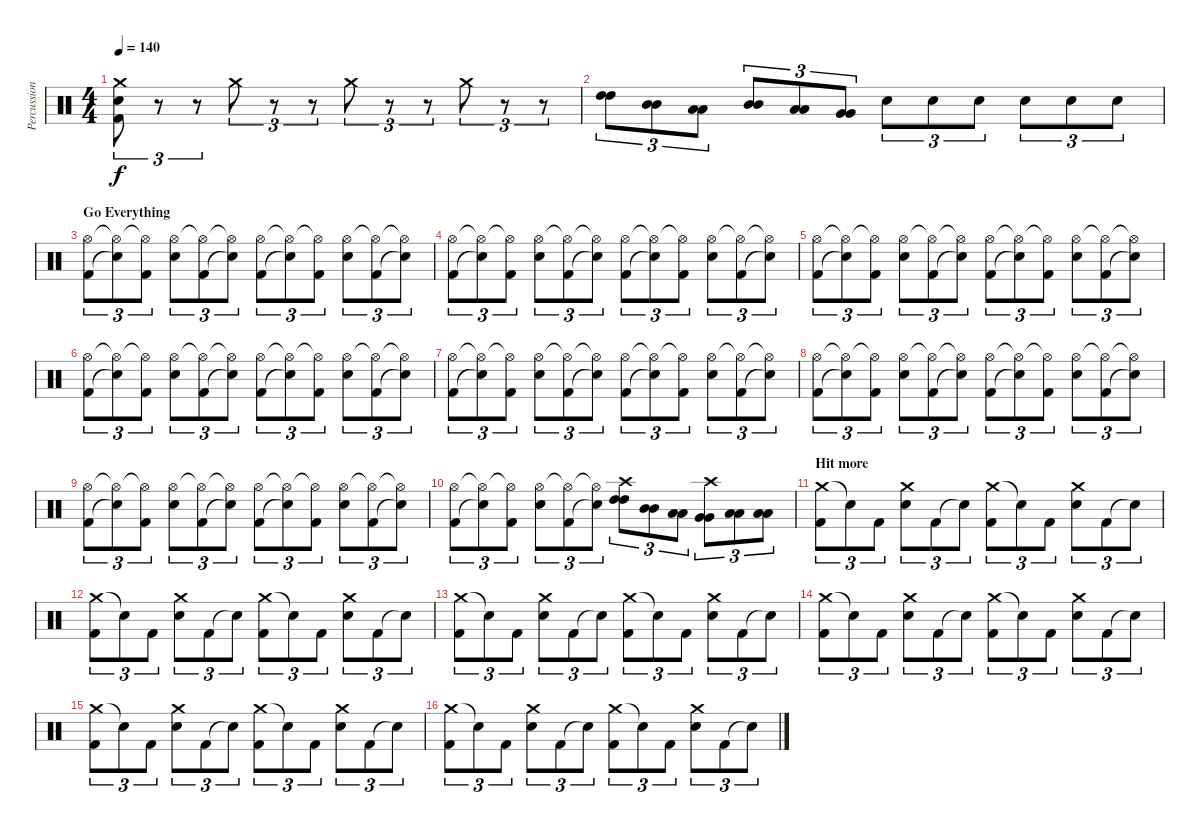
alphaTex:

\track ("Percussion" "Percussion") {instrument percussion}
\staff {score}
\articulation defaults
\ts (4 4)
\tempo 140
\clef neutral
\ks c
("Crash medium (hit)" "Electric Snare (hit)" "Kick (hit) 2").8{tu (3 2) dy f} r.8{tu (3 2)} r.8{tu (3 2)} "Crash medium (hit)".8{tu (3 2)} r.8{tu (3 2)} r.8{tu (3 2)} "Crash medium (hit)".8{tu (3 2)} r.8{tu (3 2)} r.8{tu (3 2)} "Crash medium (hit)".8{tu (3 2)} r.8{tu (3 2)} r.8{tu (3 2)} |
("High Tom (hit)" "High Tom (hit)").8{tu (3 2)} ("Mid Tom (hit)" "Mid Tom (hit)").8{tu (3 2)} ("Low Tom (hit)" "Low Tom (hit)").8{tu (3 2)} ("Mid Tom (hit)" "Mid Tom (hit)").8{tu (3 2)} ("Low Tom (hit)" "Low Tom (hit)").8{tu (3 2)} ("Very Low Tom (hit)" "Very Low Tom (hit)").8{tu (3 2)} "Electric Snare (hit)".8{tu (3 2)} "Electric Snare (hit)".8{tu (3 2)} "Electric Snare (hit)".8{tu (3 2)} "Electric Snare (hit)".8{tu (3 2)} "Electric Snare (hit)".8{tu (3 2)} "Electric Snare (hit)".8{tu (3 2)} |
\section ("" "Go Everything")
("Hi-Hat (open)" "Kick (hit) 2").8{tu (3 2)} ("Hi-Hat (open)"{t} "Snare (hit)"{t}).8{tu (3 2)} ("Hi-Hat (open)"{t} "Kick (hit) 2").8{tu (3 2)} ("Hi-Hat (open)" "Electric Snare (hit)").8{tu (3 2)} ("Hi-Hat (open)"{t} "Kick (hit) 2").8{tu (3 2)} ("Hi-Hat (open)"{t} "Snare (hit)"{t}).8{tu (3 2)} ("Hi-Hat (open)" "Kick (hit) 2").8{tu (3 2)} ("Hi-Hat (open)"{t} "Snare (hit)"{t}).8{tu (3 2)} ("Hi-Hat (open)"{t} "Kick (hit) 2").8{tu (3 2)} ("Hi-Hat (open)" "Electric Snare (hit)").8{tu (3 2)} ("Hi-Hat (open)"{t} "Kick (hit) 2").8{tu (3 2)} ("Hi-Hat (open)"{t} "Snare (hit)"{t}).8{tu (3 2)} |
("Hi-Hat (open)" "Kick (hit) 2").8{tu (3 2)} ("Hi-Hat (open)"{t} "Snare (hit)"{t}).8{tu (3 2)} ("Hi-Hat (open)"{t} "Kick (hit) 2").8{tu (3 2)} ("Hi-Hat (open)" "Electric Snare (hit)").8{tu (3 2)} ("Hi-Hat (open)"{t} "Kick (hit) 2").8{tu (3 2)} ("Hi-Hat (open)"{t} "Snare (hit)"{t}).8{tu (3 2)} ("Hi-Hat (open)" "Kick (hit) 2").8{tu (3 2)} ("Hi-Hat (open)"{t} "Snare (hit)"{t}).8{tu (3 2)} ("Hi-Hat (open)"{t} "Kick (hit) 2").8{tu (3 2)} ("Hi-Hat (open)" "Electric Snare (hit)").8{tu (3 2)} ("Hi-Hat (open)"{t} "Kick (hit) 2").8{tu (3 2)} ("Hi-Hat (open)"{t} "Snare (hit)"{t}).8{tu (3 2)} |
("Hi-Hat (open)" "Kick (hit) 2").8{tu (3 2)} ("Hi-Hat (open)"{t} "Snare (hit)"{t}).8{tu (3 2)} ("Hi-Hat (open)"{t} "Kick (hit) 2").8{tu (3 2)} ("Hi-Hat (open)" "Electric Snare (hit)").8{tu (3 2)} ("Hi-Hat (open)"{t} "Kick (hit) 2").8{tu (3 2)} ("Hi-Hat (open)"{t} "Snare (hit)"{t}).8{tu (3 2)} ("Hi-Hat (open)" "Kick (hit) 2").8{tu (3 2)} ("Hi-Hat (open)"{t} "Snare (hit)"{t}).8{tu (3 2)} ("Hi-Hat (open)"{t} "Kick (hit) 2").8{tu (3 2)} ("Hi-Hat (open)" "Electric Snare (hit)").8{tu (3 2)} ("Hi-Hat (open)"{t} "Kick (hit) 2").8{tu (3 2)} ("Hi-Hat (open)"{t} "Snare (hit)"{t}).8{tu (3 2)} |
("Hi-Hat (open)" "Kick (hit) 2").8{tu (3 2)} ("Hi-Hat (open)"{t} "Snare (hit)"{t}).8{tu (3 2)} ("Hi-Hat (open)"{t} "Kick (hit) 2").8{tu (3 2)} ("Hi-Hat (open)" "Electric Snare (hit)").8{tu (3 2)} ("Hi-Hat (open)"{t} "Kick (hit) 2").8{tu (3 2)} ("Hi-Hat (open)"{t} "Snare (hit)"{t}).8{tu (3 2)} ("Hi-Hat (open)" "Kick (hit) 2").8{tu (3 2)} ("Hi-Hat (open)"{t} "Snare (hit)"{t}).8{tu (3 2)} ("Hi-Hat (open)"{t} "Kick (hit) 2").8{tu (3 2)} ("Hi-Hat (open)" "Electric Snare (hit)").8{tu (3 2)} ("Hi-Hat (open)"{t} "Kick (hit) 2").8{tu (3 2)} ("Hi-Hat (open)"{t} "Snare (hit)"{t}).8{tu (3 2)} |
("Hi-Hat (open)" "Kick (hit) 2").8{tu (3 2)} ("Hi-Hat (open)"{t} "Snare (hit)"{t}).8{tu (3 2)} ("Hi-Hat (open)"{t} "Kick (hit) 2").8{tu (3 2)} ("Hi-Hat (open)" "Electric Snare (hit)").8{tu (3 2)} ("Hi-Hat (open)"{t} "Kick (hit) 2").8{tu (3 2)} ("Hi-Hat (open)"{t} "Snare (hit)"{t}).8{tu (3 2)} ("Hi-Hat (open)" "Kick (hit) 2").8{tu (3 2)} ("Hi-Hat (open)"{t} "Snare (hit)"{t}).8{tu (3 2)} ("Hi-Hat (open)"{t} "Kick (hit) 2").8{tu (3 2)} ("Hi-Hat (open)" "Electric Snare (hit)").8{tu (3 2)} ("Hi-Hat (open)"{t} "Kick (hit) 2").8{tu (3 2)} ("Hi-Hat (open)"{t} "Snare (hit)"{t}).8{tu (3 2)} |
("Hi-Hat (open)" "Kick (hit) 2").8{tu (3 2)} ("Hi-Hat (open)"{t} "Snare (hit)"{t}).8{tu (3 2)} ("Hi-Hat (open)"{t} "Kick (hit) 2").8{tu (3 2)} ("Hi-Hat (open)" "Electric Snare (hit)").8{tu (3 2)} ("Hi-Hat (open)"{t} "Kick (hit) 2").8{tu (3 2)} ("Hi-Hat (open)"{t} "Snare (hit)"{t}).8{tu (3 2)} ("Hi-Hat (open)" "Kick (hit) 2").8{tu (3 2)} ("Hi-Hat (open)"{t} "Snare (hit)"{t}).8{tu (3 2)} ("Hi-Hat (open)"{t} "Kick (hit) 2").8{tu (3 2)} ("Hi-Hat (open)" "Electric Snare (hit)").8{tu (3 2)} ("Hi-Hat (open)"{t} "Kick (hit) 2").8{tu (3 2)} ("Hi-Hat (open)"{t} "Snare (hit)"{t}).8{tu (3 2)} |
("Hi-Hat (open)" "Kick (hit) 2").8{tu (3 2)} ("Hi-Hat (open)"{t} "Snare (hit)"{t}).8{tu (3 2)} ("Hi-Hat (open)"{t} "Kick (hit) 2").8{tu (3 2)} ("Hi-Hat (open)" "Electric Snare (hit)").8{tu (3 2)} ("Hi-Hat (open)"{t} "Kick (hit) 2").8{tu (3 2)} ("Hi-Hat (open)"{t} "Snare (hit)"{t}).8{tu (3 2)} ("Hi-Hat (open)" "Kick (hit) 2").8{tu (3 2)} ("Hi-Hat (open)"{t} "Snare (hit)"{t}).8{tu (3 2)} ("Hi-Hat (open)"{t} "Kick (hit) 2").8{tu (3 2)} ("Hi-Hat (open)" "Electric Snare (hit)").8{tu (3 2)} ("Hi-Hat (open)"{t} "Kick (hit) 2").8{tu (3 2)} ("Hi-Hat (open)"{t} "Snare (hit)"{t}).8{tu (3 2)} |
("Hi-Hat (open)" "Kick (hit) 2").8{tu (3 2)} ("Hi-Hat (open)"{t} "Snare (hit)"{t}).8{tu (3 2)} ("Hi-Hat (open)"{t} "Kick (hit) 2").8{tu (3 2)} ("Hi-Hat (open)" "Electric Snare (hit)").8{tu (3 2)} ("Hi-Hat (open)"{t} "Kick (hit) 2").8{tu (3 2)} ("Hi-Hat (open)"{t} "Snare (hit)"{t}).8{tu (3 2)} ("Crash high (hit)" "High Tom (hit)" "High Tom (hit)").8{tu (3 2)} ("Mid Tom (hit)" "Mid Tom (hit)").8{tu (3 2)} ("Low Tom (hit)" "Low Tom (hit)").8{tu (3 2)} ("Crash high (hit)" "Very Low Tom (hit)" "Very Low Tom (hit)").8{tu (3 2)} ("Low Floor Tom (hit)" "Low Floor Tom (hit)").8{tu (3 2)} ("Low Floor Tom (hit)" "Low Floor Tom (hit)").8{tu (3 2)} |
\section ("" "Hit more")
("Crash medium (hit)" "Kick (hit) 2").8{tu (3 2)} "Snare (hit)"{t}.8{tu (3 2)} "Kick (hit) 2".8{tu (3 2)} ("Crash medium (hit)" "Electric Snare (hit)").8{tu (3 2)} "Kick (hit) 2".8{tu (3 2)} "Snare (hit)"{t}.8{tu (3 2)} ("Crash medium (hit)" "Kick (hit) 2").8{tu (3 2)} "Snare (hit)"{t}.8{tu (3 2)} "Kick (hit) 2".8{tu (3 2)} ("Crash medium (hit)" "Electric Snare (hit)").8{tu (3 2)} "Kick (hit) 2".8{tu (3 2)} "Snare (hit)"{t}.8{tu (3 2)} |
("Crash medium (hit)" "Kick (hit) 2").8{tu (3 2)} "Snare (hit)"{t}.8{tu (3 2)} "Kick (hit) 2".8{tu (3 2)} ("Crash medium (hit)" "Electric Snare (hit)").8{tu (3 2)} "Kick (hit) 2".8{tu (3 2)} "Snare (hit)"{t}.8{tu (3 2)} ("Crash medium (hit)" "Kick (hit) 2").8{tu (3 2)} "Snare (hit)"{t}.8{tu (3 2)} "Kick (hit) 2".8{tu (3 2)} ("Crash medium (hit)" "Electric Snare (hit)").8{tu (3 2)} "Kick (hit) 2".8{tu (3 2)} "Snare (hit)"{t}.8{tu (3 2)} |
("Crash medium (hit)" "Kick (hit) 2").8{tu (3 2)} "Snare (hit)"{t}.8{tu (3 2)} "Kick (hit) 2".8{tu (3 2)} ("Crash medium (hit)" "Electric Snare (hit)").8{tu (3 2)} "Kick (hit) 2".8{tu (3 2)} "Snare (hit)"{t}.8{tu (3 2)} ("Crash medium (hit)" "Kick (hit) 2").8{tu (3 2)} "Snare (hit)"{t}.8{tu (3 2)} "Kick (hit) 2".8{tu (3 2)} ("Crash medium (hit)" "Electric Snare (hit)").8{tu (3 2)} "Kick (hit) 2".8{tu (3 2)} "Snare (hit)"{t}.8{tu (3 2)} |
("Crash medium (hit)" "Kick (hit) 2").8{tu (3 2)} "Snare (hit)"{t}.8{tu (3 2)} "Kick (hit) 2".8{tu (3 2)} ("Crash medium (hit)" "Electric Snare (hit)").8{tu (3 2)} "Kick (hit) 2".8{tu (3 2)} "Snare (hit)"{t}.8{tu (3 2)} ("Crash medium (hit)" "Kick (hit) 2").8{tu (3 2)} "Snare (hit)"{t}.8{tu (3 2)} "Kick (hit) 2".8{tu (3 2)} ("Crash medium (hit)" "Electric Snare (hit)").8{tu (3 2)} "Kick (hit) 2".8{tu (3 2)} "Snare (hit)"{t}.8{tu (3 2)} |
("Crash medium (hit)" "Kick (hit) 2").8{tu (3 2)} "Snare (hit)"{t}.8{tu (3 2)} "Kick (hit) 2".8{tu (3 2)} ("Crash medium (hit)" "Electric Snare (hit)").8{tu (3 2)} "Kick (hit) 2".8{tu (3 2)} "Snare (hit)"{t}.8{tu (3 2)} ("Crash medium (hit)" "Kick (hit) 2").8{tu (3 2)} "Snare (hit)"{t}.8{tu (3 2)} "Kick (hit) 2".8{tu (3 2)} ("Crash medium (hit)" "Electric Snare (hit)").8{tu (3 2)} "Kick (hit) 2".8{tu (3 2)} "Snare (hit)"{t}.8{tu (3 2)} |
("Crash medium (hit)" "Kick (hit) 2").8{tu (3 2)} "Snare (hit)"{t}.8{tu (3 2)} "Kick (hit) 2".8{tu (3 2)} ("Crash medium (hit)" "Electric Snare (hit)").8{tu (3 2)} "Kick (hit) 2".8{tu (3 2)} "Snare (hit)"{t}.8{tu (3 2)} ("Crash medium (hit)" "Kick (hit) 2").8{tu (3 2)} "Snare (hit)"{t}.8{tu (3 2)} "Kick (hit) 2".8{tu (3 2)} ("Crash medium (hit)" "Electric Snare (hit)").8{tu (3 2)} "Kick (hit) 2".8{tu (3 2)} "Snare (hit)"{t}.8{tu (3 2)}
